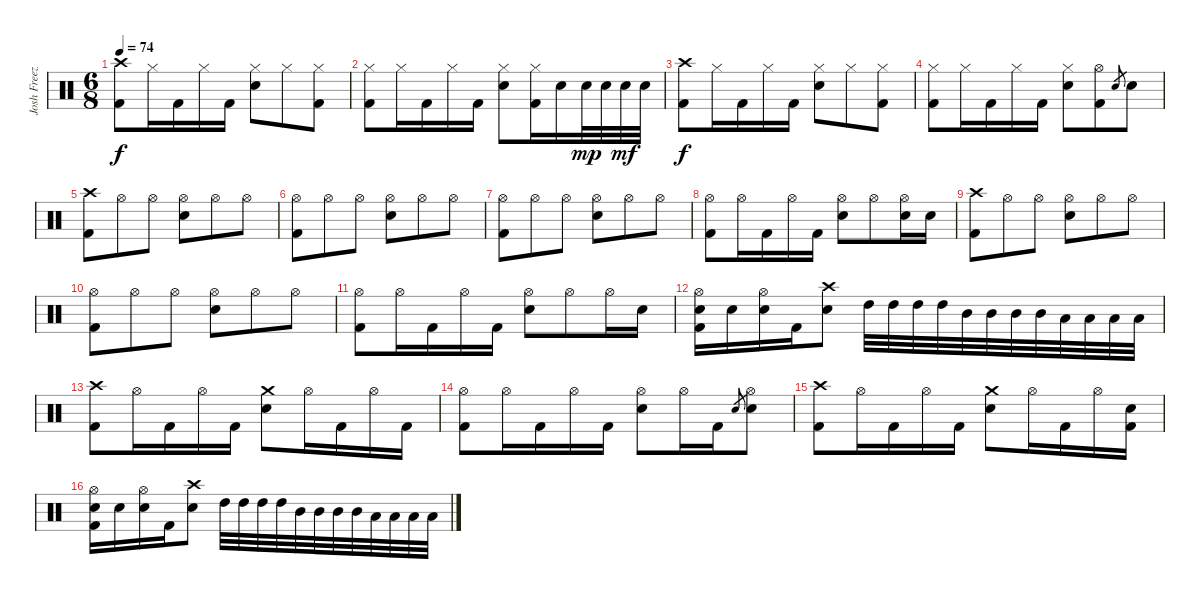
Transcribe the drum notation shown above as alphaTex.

\track ("Josh Freeze - Drums" "Josh Freez") {instrument percussion}
\staff {score}
\articulation defaults
\ts (6 8)
\tempo 74
\clef neutral
\ks c
("Crash high (hit)" "Kick (hit) 2").8{dy f} "Hi-Hat (closed)".16 "Kick (hit) 2".16 "Hi-Hat (closed)".16 "Kick (hit) 2".16 ("Hi-Hat (closed)" "Electric Snare (hit)").8 "Hi-Hat (closed)".8 ("Hi-Hat (closed)" "Kick (hit) 2").8 |
("Hi-Hat (closed)" "Kick (hit) 2").8 "Hi-Hat (closed)".16 "Kick (hit) 2".16 "Hi-Hat (closed)".16 "Kick (hit) 2".16 ("Hi-Hat (closed)" "Electric Snare (hit)").8 ("Hi-Hat (closed)" "Kick (hit) 2").16 "Electric Snare (hit)".16 "Electric Snare (hit)".32{dy mp} "Electric Snare (hit)".32 "Electric Snare (hit)".32{dy mf} "Electric Snare (hit)".32 |
("Crash high (hit)" "Kick (hit) 2").8{dy f} "Hi-Hat (closed)".16 "Kick (hit) 2".16 "Hi-Hat (closed)".16 "Kick (hit) 2".16 ("Hi-Hat (closed)" "Electric Snare (hit)").8 "Hi-Hat (closed)".8 ("Hi-Hat (closed)" "Kick (hit) 2").8 |
("Hi-Hat (closed)" "Kick (hit) 2").8 "Hi-Hat (closed)".16 "Kick (hit) 2".16 "Hi-Hat (closed)".16 "Kick (hit) 2".16 ("Hi-Hat (closed)" "Electric Snare (hit)").8 ("Hi-Hat (open)" "Kick (hit) 2").8 "Electric Snare (hit)".8{gr} "Electric Snare (hit)".8 |
("Crash high (hit)" "Kick (hit) 2").8 "Hi-Hat (open)".8 "Hi-Hat (open)".8 ("Hi-Hat (open)" "Electric Snare (hit)").8 "Hi-Hat (open)".8 "Hi-Hat (open)".8 |
("Hi-Hat (open)" "Kick (hit) 2").8 "Hi-Hat (open)".8 "Hi-Hat (open)".8 ("Hi-Hat (open)" "Electric Snare (hit)").8 "Hi-Hat (open)".8 "Hi-Hat (open)".8 |
("Hi-Hat (open)" "Kick (hit) 2").8 "Hi-Hat (open)".8 "Hi-Hat (open)".8 ("Hi-Hat (open)" "Electric Snare (hit)").8 "Hi-Hat (open)".8 "Hi-Hat (open)".8 |
("Hi-Hat (open)" "Kick (hit) 2").8 "Hi-Hat (open)".16 "Kick (hit) 2".16 "Hi-Hat (open)".16 "Kick (hit) 2".16 ("Hi-Hat (open)" "Electric Snare (hit)").8 "Hi-Hat (open)".8 ("Hi-Hat (open)" "Electric Snare (hit)").16 "Electric Snare (hit)".16 |
("Crash high (hit)" "Kick (hit) 2").8 "Hi-Hat (open)".8 "Hi-Hat (open)".8 ("Hi-Hat (open)" "Electric Snare (hit)").8 "Hi-Hat (open)".8 "Hi-Hat (open)".8 |
("Hi-Hat (open)" "Kick (hit) 2").8 "Hi-Hat (open)".8 "Hi-Hat (open)".8 ("Hi-Hat (open)" "Electric Snare (hit)").8 "Hi-Hat (open)".8 "Hi-Hat (open)".8 |
("Hi-Hat (open)" "Kick (hit) 2").8 "Hi-Hat (open)".16 "Kick (hit) 2".16 "Hi-Hat (open)".16 "Kick (hit) 2".16 ("Hi-Hat (open)" "Electric Snare (hit)").8 "Hi-Hat (open)".8 "Hi-Hat (open)".16 "Electric Snare (hit)".16 |
("Hi-Hat (open)" "Electric Snare (hit)" "Kick (hit) 2").16 "Electric Snare (hit)".16 ("Hi-Hat (open)" "Electric Snare (hit)").16 "Kick (hit) 2".16 ("Crash high (hit)" "Electric Snare (hit)").8 "High Tom (hit)".32 "High Tom (hit)".32 "High Tom (hit)".32 "High Tom (hit)".32 "Mid Tom (hit)".32 "Mid Tom (hit)".32 "Mid Tom (hit)".32 "Mid Tom (hit)".32 "Low Tom (hit)".32 "Low Tom (hit)".32 "Low Tom (hit)".32 "Low Tom (hit)".32 |
("Crash high (hit)" "Kick (hit) 2").8 "Hi-Hat (open)".16 "Kick (hit) 2".16 "Hi-Hat (open)".16 "Kick (hit) 2".16 ("Crash medium (hit)" "Electric Snare (hit)").8 "Hi-Hat (open)".16 "Kick (hit) 2".16 "Hi-Hat (open)".16 "Kick (hit) 2".16 |
("Hi-Hat (open)" "Kick (hit) 2").8 "Hi-Hat (open)".16 "Kick (hit) 2".16 "Hi-Hat (open)".16 "Kick (hit) 2".16 ("Hi-Hat (open)" "Electric Snare (hit)").8 "Hi-Hat (open)".16 "Kick (hit) 2".16 "Electric Snare (hit)".8{gr} ("Hi-Hat (open)" "Electric Snare (hit)").8 |
("Crash high (hit)" "Kick (hit) 2").8 "Hi-Hat (open)".16 "Kick (hit) 2".16 "Hi-Hat (open)".16 "Kick (hit) 2".16 ("Crash medium (hit)" "Electric Snare (hit)").8 "Hi-Hat (open)".16 "Kick (hit) 2".16 "Hi-Hat (open)".16 ("Electric Snare (hit)" "Kick (hit) 2").16 |
("Hi-Hat (open)" "Electric Snare (hit)" "Kick (hit) 2").16 "Electric Snare (hit)".16 ("Hi-Hat (open)" "Electric Snare (hit)").16 "Kick (hit) 2".16 ("Crash high (hit)" "Electric Snare (hit)").8 "High Tom (hit)".32 "High Tom (hit)".32 "High Tom (hit)".32 "High Tom (hit)".32 "Mid Tom (hit)".32 "Mid Tom (hit)".32 "Mid Tom (hit)".32 "Mid Tom (hit)".32 "Low Tom (hit)".32 "Low Tom (hit)".32 "Low Tom (hit)".32 "Low Tom (hit)".32
